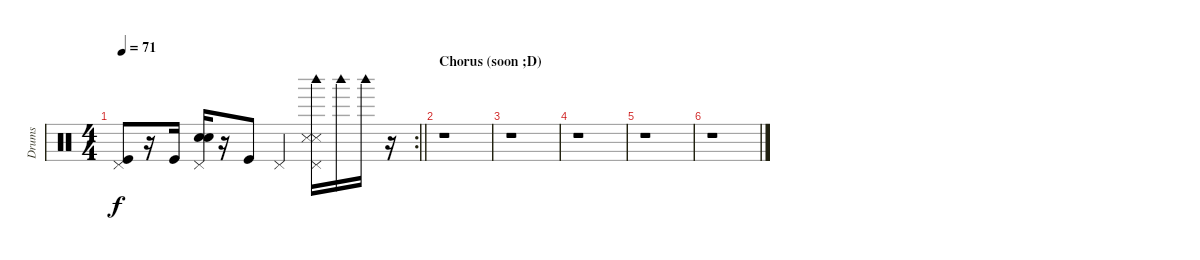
\track ("Drums" "Drums") {instrument percussion}
\staff {score}
\articulation defaults
\rc 2
\ts (4 4)
\tempo 71
\clef neutral
\barLineRight lightlight
\ks c
("Pedal Hi-Hat (hit)" "Kick (hit)").8{dy f} r.16 "Kick (hit)".16 ("Pedal Hi-Hat (hit)" "Metronome (bell)" "Metronome (bell)").16 r.16 "Kick (hit)".8 "Pedal Hi-Hat (hit)".4 ("Pedal Hi-Hat (hit)" "Snare (side stick) 3" "Snare (side stick) 3" "Woodblock high (hit)").16 "Woodblock high (hit)".16 "Woodblock high (hit)".16 r.16 |
\section ("" "Chorus (soon ;D)")
r.1 |
r.1 |
r.1 |
r.1 |
r.1
